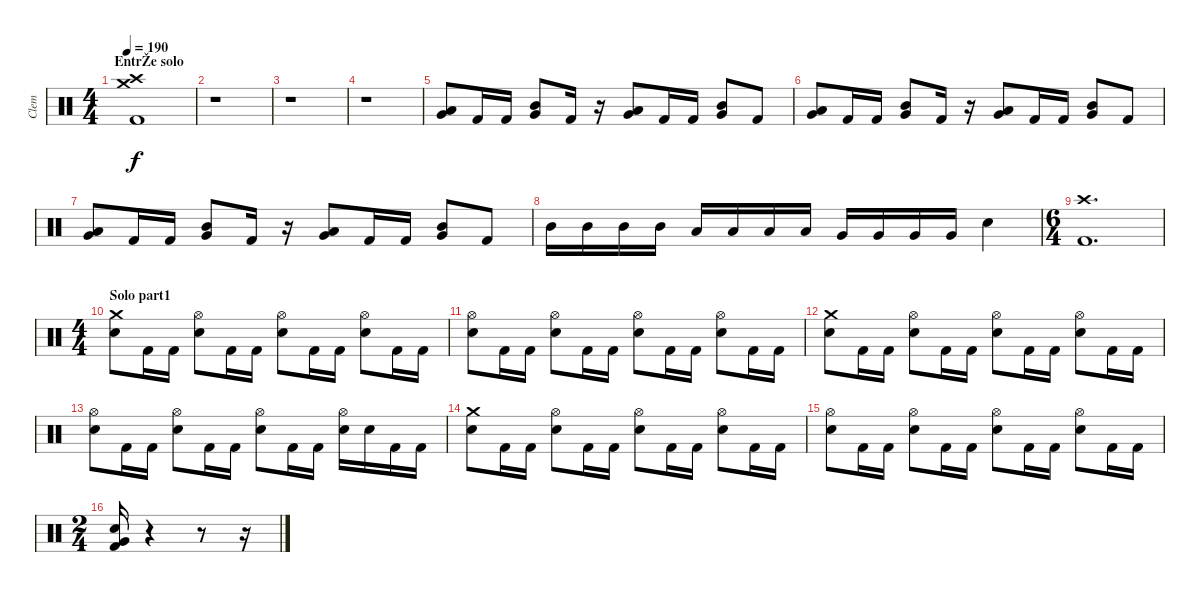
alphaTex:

\track ("Clem" "Clem") {instrument percussion}
\staff {score}
\articulation defaults
\ts (4 4)
\section ("" "EntrŽe solo")
\tempo 190
\clef neutral
\ks c
("Crash high (hit)" "Crash medium (hit)" "Kick (hit) 2").1{dy f} |
r.1 |
r.1 |
r.1 |
("Low Tom (hit)" "Very Low Tom (hit)").8 "Kick (hit) 2".16 "Kick (hit) 2".16 ("Mid Tom (hit)" "Very Low Tom (hit)").8 "Kick (hit) 2".16 r.16 ("Low Tom (hit)" "Very Low Tom (hit)").8 "Kick (hit) 2".16 "Kick (hit) 2".16 ("Mid Tom (hit)" "Very Low Tom (hit)").8 "Kick (hit) 2".8 |
("Low Tom (hit)" "Very Low Tom (hit)").8 "Kick (hit) 2".16 "Kick (hit) 2".16 ("Mid Tom (hit)" "Very Low Tom (hit)").8 "Kick (hit) 2".16 r.16 ("Low Tom (hit)" "Very Low Tom (hit)").8 "Kick (hit) 2".16 "Kick (hit) 2".16 ("Mid Tom (hit)" "Very Low Tom (hit)").8 "Kick (hit) 2".8 |
("Low Tom (hit)" "Very Low Tom (hit)").8 "Kick (hit) 2".16 "Kick (hit) 2".16 ("Mid Tom (hit)" "Very Low Tom (hit)").8 "Kick (hit) 2".16 r.16 ("Low Tom (hit)" "Very Low Tom (hit)").8 "Kick (hit) 2".16 "Kick (hit) 2".16 ("Mid Tom (hit)" "Very Low Tom (hit)").8 "Kick (hit) 2".8 |
"Mid Tom (hit)".16 "Mid Tom (hit)".16 "Mid Tom (hit)".16 "Mid Tom (hit)".16 "Low Tom (hit)".16 "Low Tom (hit)".16 "Low Tom (hit)".16 "Low Tom (hit)".16 "Very Low Tom (hit)".16 "Very Low Tom (hit)".16 "Very Low Tom (hit)".16 "Very Low Tom (hit)".16 "Electric Snare (hit)".4 |
\ts (6 4)
("Crash high (hit)" "Kick (hit) 2").1{d} |
\ts (4 4)
\section ("" "Solo part1")
("Crash medium (hit)" "Electric Snare (hit)").8 "Kick (hit) 2".16 "Kick (hit) 2".16 ("Hi-Hat (open)" "Electric Snare (hit)").8 "Kick (hit) 2".16 "Kick (hit) 2".16 ("Hi-Hat (open)" "Electric Snare (hit)").8 "Kick (hit) 2".16 "Kick (hit) 2".16 ("Hi-Hat (open)" "Electric Snare (hit)").8 "Kick (hit) 2".16 "Kick (hit) 2".16 |
("Hi-Hat (open)" "Electric Snare (hit)").8 "Kick (hit) 2".16 "Kick (hit) 2".16 ("Hi-Hat (open)" "Electric Snare (hit)").8 "Kick (hit) 2".16 "Kick (hit) 2".16 ("Hi-Hat (open)" "Electric Snare (hit)").8 "Kick (hit) 2".16 "Kick (hit) 2".16 ("Hi-Hat (open)" "Electric Snare (hit)").8 "Kick (hit) 2".16 "Kick (hit) 2".16 |
("Crash medium (hit)" "Electric Snare (hit)").8 "Kick (hit) 2".16 "Kick (hit) 2".16 ("Hi-Hat (open)" "Electric Snare (hit)").8 "Kick (hit) 2".16 "Kick (hit) 2".16 ("Hi-Hat (open)" "Electric Snare (hit)").8 "Kick (hit) 2".16 "Kick (hit) 2".16 ("Hi-Hat (open)" "Electric Snare (hit)").8 "Kick (hit) 2".16 "Kick (hit) 2".16 |
("Hi-Hat (open)" "Electric Snare (hit)").8 "Kick (hit) 2".16 "Kick (hit) 2".16 ("Hi-Hat (open)" "Electric Snare (hit)").8 "Kick (hit) 2".16 "Kick (hit) 2".16 ("Hi-Hat (open)" "Electric Snare (hit)").8 "Kick (hit) 2".16 "Kick (hit) 2".16 ("Hi-Hat (open)" "Electric Snare (hit)").16 "Electric Snare (hit)".16 "Kick (hit) 2".16 "Kick (hit) 2".16 |
("Crash medium (hit)" "Electric Snare (hit)").8 "Kick (hit) 2".16 "Kick (hit) 2".16 ("Hi-Hat (open)" "Electric Snare (hit)").8 "Kick (hit) 2".16 "Kick (hit) 2".16 ("Hi-Hat (open)" "Electric Snare (hit)").8 "Kick (hit) 2".16 "Kick (hit) 2".16 ("Hi-Hat (open)" "Electric Snare (hit)").8 "Kick (hit) 2".16 "Kick (hit) 2".16 |
("Hi-Hat (open)" "Electric Snare (hit)").8 "Kick (hit) 2".16 "Kick (hit) 2".16 ("Hi-Hat (open)" "Electric Snare (hit)").8 "Kick (hit) 2".16 "Kick (hit) 2".16 ("Hi-Hat (open)" "Electric Snare (hit)").8 "Kick (hit) 2".16 "Kick (hit) 2".16 ("Hi-Hat (open)" "Electric Snare (hit)").8 "Kick (hit) 2".16 "Kick (hit) 2".16 |
\ts (2 4)
("Electric Snare (hit)" "Very Low Tom (hit)" "Kick (hit) 2").16 r.4 r.8 r.16
